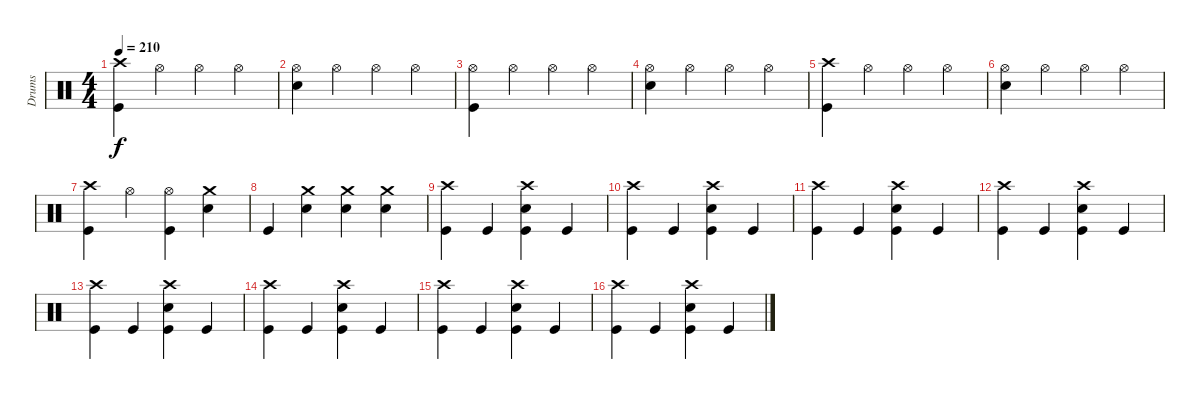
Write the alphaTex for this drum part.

\track ("Drums" "Drums") {instrument percussion}
\staff {score}
\articulation defaults
\ts (4 4)
\tempo 210
\clef neutral
\ks c
("Crash high (hit)" "Kick (hit)").4{dy f} "Hi-Hat (open)".4 "Hi-Hat (open)".4 "Hi-Hat (open)".4 |
("Hi-Hat (open)" "Snare (hit) 2").4 "Hi-Hat (open)".4 "Hi-Hat (open)".4 "Hi-Hat (open)".4 |
("Hi-Hat (open)" "Kick (hit)").4 "Hi-Hat (open)".4 "Hi-Hat (open)".4 "Hi-Hat (open)".4 |
("Hi-Hat (open)" "Snare (hit) 2").4 "Hi-Hat (open)".4 "Hi-Hat (open)".4 "Hi-Hat (open)".4 |
("Crash high (hit)" "Kick (hit)").4 "Hi-Hat (open)".4 "Hi-Hat (open)".4 "Hi-Hat (open)".4 |
("Hi-Hat (open)" "Snare (hit) 2").4 "Hi-Hat (open)".4 "Hi-Hat (open)".4 "Hi-Hat (open)".4 |
("Crash high (hit)" "Kick (hit)").4 "Hi-Hat (open)".4 ("Hi-Hat (open)" "Kick (hit)").4 ("Crash medium (hit)" "Snare (hit) 2").4 |
"Kick (hit)".4 ("Crash medium (hit)" "Snare (hit) 2").4 ("Crash medium (hit)" "Snare (hit) 2").4 ("Crash medium (hit)" "Snare (hit) 2").4 |
("Crash high (hit)" "Kick (hit)").4 "Kick (hit)".4 ("Crash high (hit)" "Snare (hit) 2" "Kick (hit)").4 "Kick (hit)".4 |
("Crash high (hit)" "Kick (hit)").4 "Kick (hit)".4 ("Crash high (hit)" "Snare (hit) 2" "Kick (hit)").4 "Kick (hit)".4 |
("Crash high (hit)" "Kick (hit)").4 "Kick (hit)".4 ("Crash high (hit)" "Snare (hit) 2" "Kick (hit)").4 "Kick (hit)".4 |
("Crash high (hit)" "Kick (hit)").4 "Kick (hit)".4 ("Crash high (hit)" "Snare (hit) 2" "Kick (hit)").4 "Kick (hit)".4 |
("Crash high (hit)" "Kick (hit)").4 "Kick (hit)".4 ("Crash high (hit)" "Snare (hit) 2" "Kick (hit)").4 "Kick (hit)".4 |
("Crash high (hit)" "Kick (hit)").4 "Kick (hit)".4 ("Crash high (hit)" "Snare (hit) 2" "Kick (hit)").4 "Kick (hit)".4 |
("Crash high (hit)" "Kick (hit)").4 "Kick (hit)".4 ("Crash high (hit)" "Snare (hit) 2" "Kick (hit)").4 "Kick (hit)".4 |
("Crash high (hit)" "Kick (hit)").4 "Kick (hit)".4 ("Crash high (hit)" "Snare (hit) 2" "Kick (hit)").4 "Kick (hit)".4
